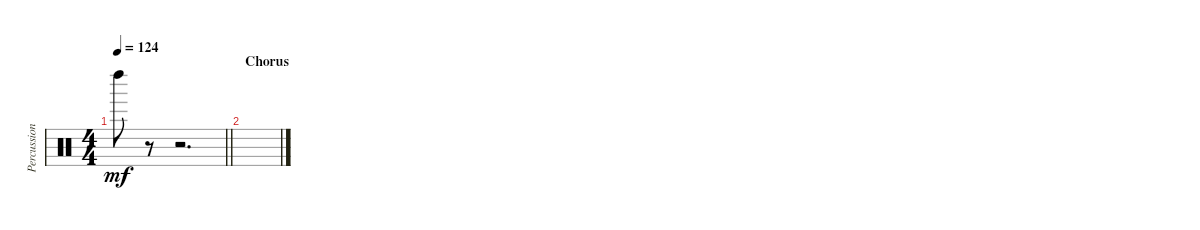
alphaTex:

\track ("Percussioni" "Percussion") {instrument percussion}
\staff {score}
\articulation defaults
\ts (4 4)
\tempo 124
\clef neutral
\barLineRight lightlight
\ks c "Left Maraca (hit)".8{dy mf}
r.8 r.2{d} |
\section ("" "Chorus")
